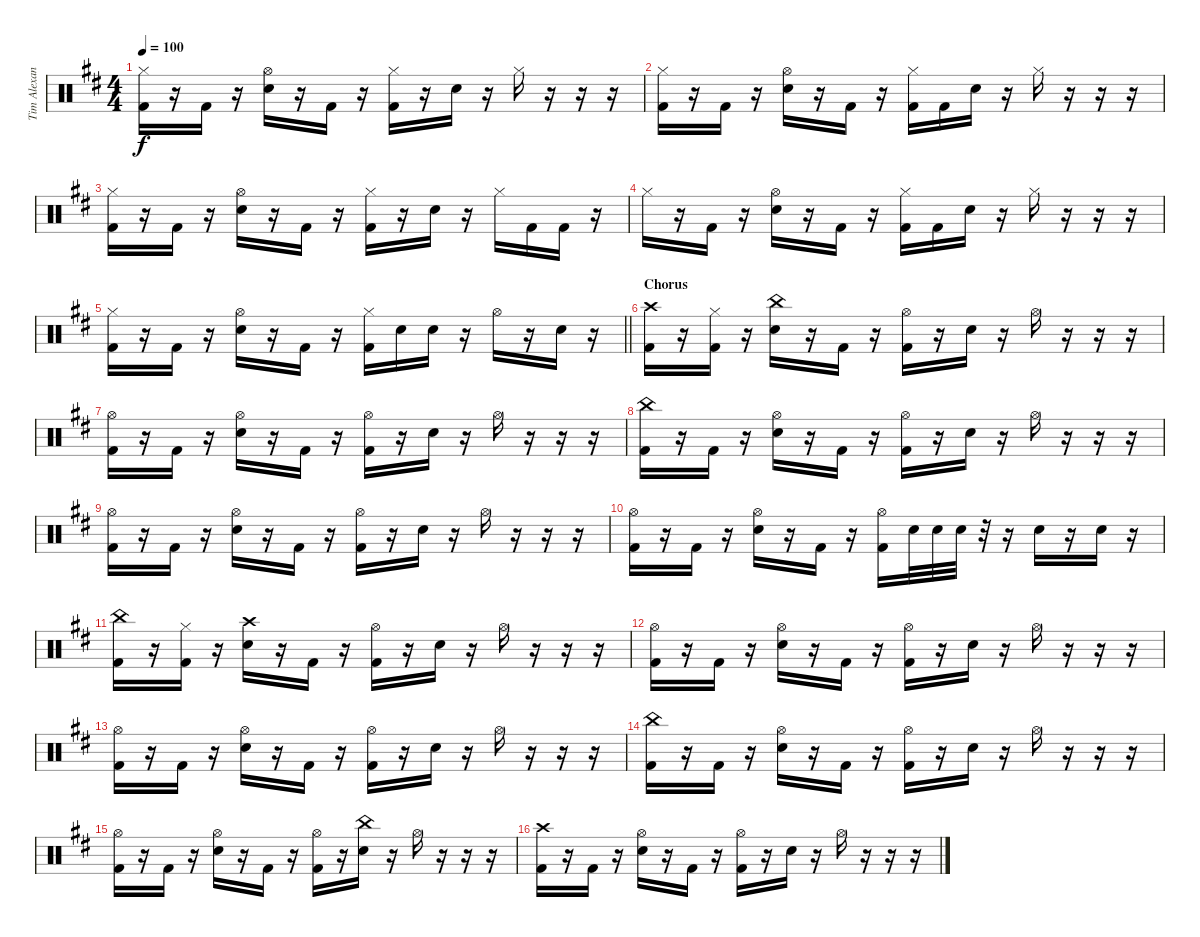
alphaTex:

\track ("Tim Alexander" "Tim Alexan") {instrument percussion}
\staff {score}
\articulation defaults
\ts (4 4)
\tempo 100
\clef neutral
\ks d
("Hi-Hat (closed)" "Kick (hit) 2").16{dy f} r.16 "Kick (hit) 2".16 r.16 ("Hi-Hat (open)" "Snare (hit) 2").16 r.16 "Kick (hit) 2".16 r.16 ("Hi-Hat (closed)" "Kick (hit) 2").16 r.16 "Snare (hit) 2".16 r.16 "Hi-Hat (closed)".16 r.16 r.16 r.16 |
("Hi-Hat (closed)" "Kick (hit) 2").16 r.16 "Kick (hit) 2".16 r.16 ("Hi-Hat (open)" "Snare (hit) 2").16 r.16 "Kick (hit) 2".16 r.16 ("Hi-Hat (closed)" "Kick (hit) 2").16 "Kick (hit) 2".16 "Snare (hit) 2".16 r.16 "Hi-Hat (closed)".16 r.16 r.16 r.16 |
("Hi-Hat (closed)" "Kick (hit) 2").16 r.16 "Kick (hit) 2".16 r.16 ("Hi-Hat (open)" "Snare (hit) 2").16 r.16 "Kick (hit) 2".16 r.16 ("Hi-Hat (closed)" "Kick (hit) 2").16 r.16 "Snare (hit) 2".16 r.16 "Hi-Hat (closed)".16 "Kick (hit) 2".16 "Kick (hit) 2".16 r.16 |
"Hi-Hat (closed)".16 r.16 "Kick (hit) 2".16 r.16 ("Hi-Hat (open)" "Snare (hit) 2").16 r.16 "Kick (hit) 2".16 r.16 ("Hi-Hat (closed)" "Kick (hit) 2").16 "Kick (hit) 2".16 "Snare (hit) 2".16 r.16 "Hi-Hat (closed)".16 r.16 r.16 r.16 |
\barLineRight lightlight
("Hi-Hat (closed)" "Kick (hit) 2").16 r.16 "Kick (hit) 2".16 r.16 ("Hi-Hat (open)" "Snare (hit) 2").16 r.16 "Kick (hit) 2".16 r.16 ("Hi-Hat (closed)" "Kick (hit) 2").16 "Snare (hit) 2".16 "Snare (hit) 2".16 r.16 "Hi-Hat (open)".16 r.16 "Snare (hit) 2".16 r.16 |
\section ("" "Chorus")
("Crash high (hit)" "Kick (hit) 2").16 r.16 ("Hi-Hat (closed)" "Kick (hit) 2").16 r.16 ("China (hit)" "Snare (hit) 2").16 r.16 "Kick (hit) 2".16 r.16 ("Hi-Hat (open)" "Kick (hit) 2").16 r.16 "Snare (hit) 2".16 r.16 "Hi-Hat (open)".16 r.16 r.16 r.16 |
("Hi-Hat (open)" "Kick (hit) 2").16 r.16 "Kick (hit) 2".16 r.16 ("Hi-Hat (open)" "Snare (hit) 2").16 r.16 "Kick (hit) 2".16 r.16 ("Hi-Hat (open)" "Kick (hit) 2").16 r.16 "Snare (hit) 2".16 r.16 "Hi-Hat (open)".16 r.16 r.16 r.16 |
("China (hit)" "Kick (hit) 2").16 r.16 "Kick (hit) 2".16 r.16 ("Hi-Hat (open)" "Snare (hit) 2").16 r.16 "Kick (hit) 2".16 r.16 ("Hi-Hat (open)" "Kick (hit) 2").16 r.16 "Snare (hit) 2".16 r.16 "Hi-Hat (open)".16 r.16 r.16 r.16 |
("Hi-Hat (open)" "Kick (hit) 2").16 r.16 "Kick (hit) 2".16 r.16 ("Hi-Hat (open)" "Snare (hit) 2").16 r.16 "Kick (hit) 2".16 r.16 ("Hi-Hat (open)" "Kick (hit) 2").16 r.16 "Snare (hit) 2".16 r.16 "Hi-Hat (open)".16 r.16 r.16 r.16 |
("Hi-Hat (open)" "Kick (hit) 2").16 r.16 "Kick (hit) 2".16 r.16 ("Hi-Hat (open)" "Snare (hit) 2").16 r.16 "Kick (hit) 2".16 r.16 ("Hi-Hat (open)" "Kick (hit) 2").16 "Snare (hit) 2".32 "Snare (hit) 2".32 "Snare (hit) 2".32 r.32 r.16 "Snare (hit) 2".16 r.16 "Snare (hit) 2".16 r.16 |
("China (hit)" "Kick (hit) 2").16 r.16 ("Hi-Hat (closed)" "Kick (hit) 2").16 r.16 ("Crash high (hit)" "Snare (hit) 2").16 r.16 "Kick (hit) 2".16 r.16 ("Hi-Hat (open)" "Kick (hit) 2").16 r.16 "Snare (hit) 2".16 r.16 "Hi-Hat (open)".16 r.16 r.16 r.16 |
("Hi-Hat (open)" "Kick (hit) 2").16 r.16 "Kick (hit) 2".16 r.16 ("Hi-Hat (open)" "Snare (hit) 2").16 r.16 "Kick (hit) 2".16 r.16 ("Hi-Hat (open)" "Kick (hit) 2").16 r.16 "Snare (hit) 2".16 r.16 "Hi-Hat (open)".16 r.16 r.16 r.16 |
("Hi-Hat (open)" "Kick (hit) 2").16 r.16 "Kick (hit) 2".16 r.16 ("Hi-Hat (open)" "Snare (hit) 2").16 r.16 "Kick (hit) 2".16 r.16 ("Hi-Hat (open)" "Kick (hit) 2").16 r.16 "Snare (hit) 2".16 r.16 "Hi-Hat (open)".16 r.16 r.16 r.16 |
("China (hit)" "Kick (hit) 2").16 r.16 "Kick (hit) 2".16 r.16 ("Hi-Hat (open)" "Snare (hit) 2").16 r.16 "Kick (hit) 2".16 r.16 ("Hi-Hat (open)" "Kick (hit) 2").16 r.16 "Snare (hit) 2".16 r.16 "Hi-Hat (open)".16 r.16 r.16 r.16 |
("Hi-Hat (open)" "Kick (hit) 2").16 r.16 "Kick (hit) 2".16 r.16 ("Hi-Hat (open)" "Snare (hit) 2").16 r.16 "Kick (hit) 2".16 r.16 ("Hi-Hat (open)" "Kick (hit) 2").16 r.16 ("China (hit)" "Snare (hit) 2").16 r.16 "Hi-Hat (open)".16 r.16 r.16 r.16 |
("Crash high (hit)" "Kick (hit) 2").16 r.16 "Kick (hit) 2".16 r.16 ("Hi-Hat (open)" "Snare (hit) 2").16 r.16 "Kick (hit) 2".16 r.16 ("Hi-Hat (open)" "Kick (hit) 2").16 r.16 "Snare (hit) 2".16 r.16 "Hi-Hat (open)".16 r.16 r.16 r.16
